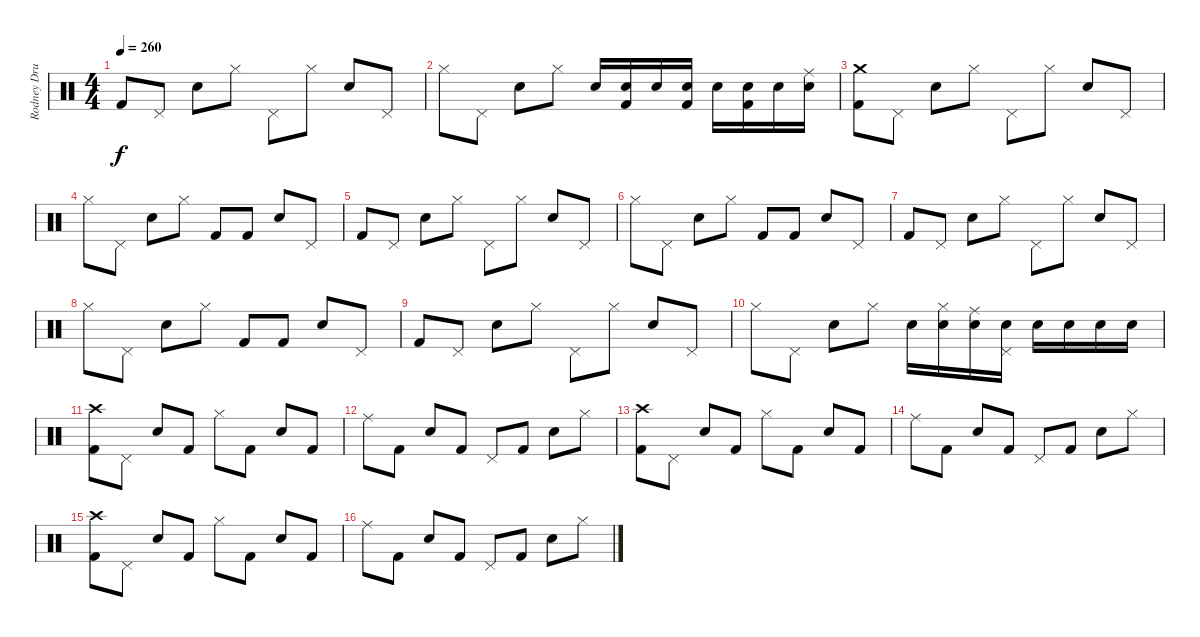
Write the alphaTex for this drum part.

\track ("Rodney Drums" "Rodney Dru") {instrument percussion}
\staff {score}
\articulation defaults
\ts (4 4)
\tempo 260
\clef neutral
\ks c "Kick (hit) 2".8{dy f} "Pedal Hi-Hat (hit)".8 "Electric Snare (hit)".8 "Hi-Hat (closed)".8 "Pedal Hi-Hat (hit)".8 "Hi-Hat (closed)".8 "Electric Snare (hit)".8 "Pedal Hi-Hat (hit)".8
|
"Hi-Hat (closed)".8 "Pedal Hi-Hat (hit)".8 "Electric Snare (hit)".8 "Hi-Hat (closed)".8 "Electric Snare (hit)".16 ("Electric Snare (hit)" "Kick (hit) 2").16 "Electric Snare (hit)".16 ("Electric Snare (hit)" "Kick (hit) 2").16 "Electric Snare (hit)".16 ("Electric Snare (hit)" "Kick (hit) 2").16 "Electric Snare (hit)".16 ("Electric Snare (hit)" "Ride (middle)").16 |
("Crash medium (hit)" "Kick (hit) 2").8 "Pedal Hi-Hat (hit)".8 "Electric Snare (hit)".8 "Hi-Hat (closed)".8 "Pedal Hi-Hat (hit)".8 "Hi-Hat (closed)".8 "Electric Snare (hit)".8 "Pedal Hi-Hat (hit)".8 |
"Hi-Hat (closed)".8 "Pedal Hi-Hat (hit)".8 "Electric Snare (hit)".8 "Hi-Hat (closed)".8 "Kick (hit) 2".8 "Kick (hit) 2".8 "Electric Snare (hit)".8 "Pedal Hi-Hat (hit)".8 |
"Kick (hit) 2".8 "Pedal Hi-Hat (hit)".8 "Electric Snare (hit)".8 "Hi-Hat (closed)".8 "Pedal Hi-Hat (hit)".8 "Hi-Hat (closed)".8 "Electric Snare (hit)".8 "Pedal Hi-Hat (hit)".8 |
"Hi-Hat (closed)".8 "Pedal Hi-Hat (hit)".8 "Electric Snare (hit)".8 "Hi-Hat (closed)".8 "Kick (hit) 2".8 "Kick (hit) 2".8 "Electric Snare (hit)".8 "Pedal Hi-Hat (hit)".8 |
"Kick (hit) 2".8 "Pedal Hi-Hat (hit)".8 "Electric Snare (hit)".8 "Hi-Hat (closed)".8 "Pedal Hi-Hat (hit)".8 "Hi-Hat (closed)".8 "Electric Snare (hit)".8 "Pedal Hi-Hat (hit)".8 |
"Hi-Hat (closed)".8 "Pedal Hi-Hat (hit)".8 "Electric Snare (hit)".8 "Hi-Hat (closed)".8 "Kick (hit) 2".8 "Kick (hit) 2".8 "Electric Snare (hit)".8 "Pedal Hi-Hat (hit)".8 |
"Kick (hit) 2".8 "Pedal Hi-Hat (hit)".8 "Electric Snare (hit)".8 "Hi-Hat (closed)".8 "Pedal Hi-Hat (hit)".8 "Hi-Hat (closed)".8 "Electric Snare (hit)".8 "Pedal Hi-Hat (hit)".8 |
"Hi-Hat (closed)".8 "Pedal Hi-Hat (hit)".8 "Electric Snare (hit)".8 "Hi-Hat (closed)".8 "Electric Snare (hit)".16 ("Hi-Hat (closed)" "Electric Snare (hit)").16 ("Electric Snare (hit)" "Ride (middle)").16 ("Pedal Hi-Hat (hit)" "Electric Snare (hit)").16 "Electric Snare (hit)".16 "Electric Snare (hit)".16 "Electric Snare (hit)".16 "Electric Snare (hit)".16 |
("Crash high (hit)" "Kick (hit) 2").8 "Pedal Hi-Hat (hit)".8 "Electric Snare (hit)".8 "Kick (hit) 2".8 "Hi-Hat (closed)".8 "Kick (hit) 2".8 "Electric Snare (hit)".8 "Kick (hit) 2".8 |
"Ride (middle)".8 "Kick (hit) 2".8 "Electric Snare (hit)".8 "Kick (hit) 2".8 "Pedal Hi-Hat (hit)".8 "Kick (hit) 2".8 "Electric Snare (hit)".8 "Hi-Hat (closed)".8 |
("Crash high (hit)" "Kick (hit) 2").8 "Pedal Hi-Hat (hit)".8 "Electric Snare (hit)".8 "Kick (hit) 2".8 "Hi-Hat (closed)".8 "Kick (hit) 2".8 "Electric Snare (hit)".8 "Kick (hit) 2".8 |
"Ride (middle)".8 "Kick (hit) 2".8 "Electric Snare (hit)".8 "Kick (hit) 2".8 "Pedal Hi-Hat (hit)".8 "Kick (hit) 2".8 "Electric Snare (hit)".8 "Hi-Hat (closed)".8 |
("Crash high (hit)" "Kick (hit) 2").8 "Pedal Hi-Hat (hit)".8 "Electric Snare (hit)".8 "Kick (hit) 2".8 "Hi-Hat (closed)".8 "Kick (hit) 2".8 "Electric Snare (hit)".8 "Kick (hit) 2".8 |
"Ride (middle)".8 "Kick (hit) 2".8 "Electric Snare (hit)".8 "Kick (hit) 2".8 "Pedal Hi-Hat (hit)".8 "Kick (hit) 2".8 "Electric Snare (hit)".8 "Hi-Hat (closed)".8
